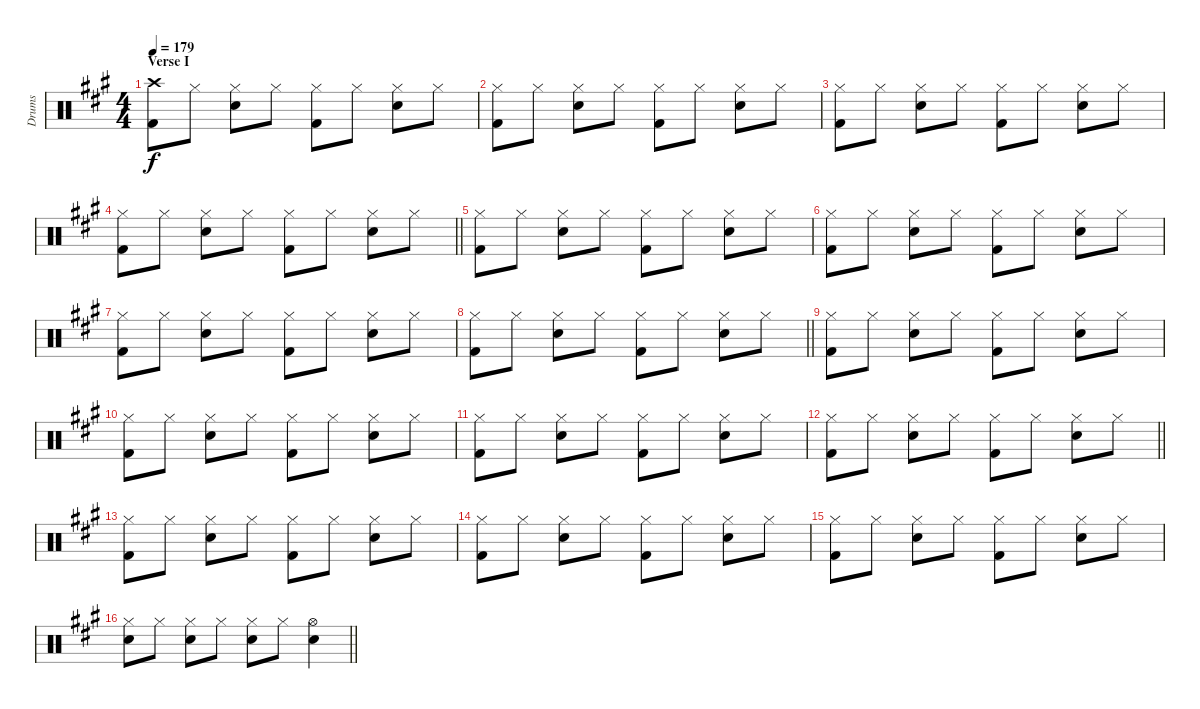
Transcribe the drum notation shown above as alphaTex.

\track ("Drums" "Drums") {instrument percussion}
\staff {score}
\articulation defaults
\ts (4 4)
\section ("" "Verse I")
\tempo 179
\clef neutral
\ks a
("Crash high (hit)" "Kick (hit) 2").8{dy f} "Hi-Hat (closed)".8 ("Hi-Hat (closed)" "Electric Snare (hit)").8 "Hi-Hat (closed)".8 ("Hi-Hat (closed)" "Kick (hit) 2").8 "Hi-Hat (closed)".8 ("Hi-Hat (closed)" "Electric Snare (hit)").8 "Hi-Hat (closed)".8 |
("Hi-Hat (closed)" "Kick (hit) 2").8 "Hi-Hat (closed)".8 ("Hi-Hat (closed)" "Electric Snare (hit)").8 "Hi-Hat (closed)".8 ("Hi-Hat (closed)" "Kick (hit) 2").8 "Hi-Hat (closed)".8 ("Hi-Hat (closed)" "Electric Snare (hit)").8 "Hi-Hat (closed)".8 |
("Hi-Hat (closed)" "Kick (hit) 2").8 "Hi-Hat (closed)".8 ("Hi-Hat (closed)" "Electric Snare (hit)").8 "Hi-Hat (closed)".8 ("Hi-Hat (closed)" "Kick (hit) 2").8 "Hi-Hat (closed)".8 ("Hi-Hat (closed)" "Electric Snare (hit)").8 "Hi-Hat (closed)".8 |
\barLineRight lightlight
("Hi-Hat (closed)" "Kick (hit) 2").8 "Hi-Hat (closed)".8 ("Hi-Hat (closed)" "Electric Snare (hit)").8 "Hi-Hat (closed)".8 ("Hi-Hat (closed)" "Kick (hit) 2").8 "Hi-Hat (closed)".8 ("Hi-Hat (closed)" "Electric Snare (hit)").8 "Hi-Hat (closed)".8 |
("Hi-Hat (closed)" "Kick (hit) 2").8 "Hi-Hat (closed)".8 ("Hi-Hat (closed)" "Electric Snare (hit)").8 "Hi-Hat (closed)".8 ("Hi-Hat (closed)" "Kick (hit) 2").8 "Hi-Hat (closed)".8 ("Hi-Hat (closed)" "Electric Snare (hit)").8 "Hi-Hat (closed)".8 |
("Hi-Hat (closed)" "Kick (hit) 2").8 "Hi-Hat (closed)".8 ("Hi-Hat (closed)" "Electric Snare (hit)").8 "Hi-Hat (closed)".8 ("Hi-Hat (closed)" "Kick (hit) 2").8 "Hi-Hat (closed)".8 ("Hi-Hat (closed)" "Electric Snare (hit)").8 "Hi-Hat (closed)".8 |
("Hi-Hat (closed)" "Kick (hit) 2").8 "Hi-Hat (closed)".8 ("Hi-Hat (closed)" "Electric Snare (hit)").8 "Hi-Hat (closed)".8 ("Hi-Hat (closed)" "Kick (hit) 2").8 "Hi-Hat (closed)".8 ("Hi-Hat (closed)" "Electric Snare (hit)").8 "Hi-Hat (closed)".8 |
\barLineRight lightlight
("Hi-Hat (closed)" "Kick (hit) 2").8 "Hi-Hat (closed)".8 ("Hi-Hat (closed)" "Electric Snare (hit)").8 "Hi-Hat (closed)".8 ("Hi-Hat (closed)" "Kick (hit) 2").8 "Hi-Hat (closed)".8 ("Hi-Hat (closed)" "Electric Snare (hit)").8 "Hi-Hat (closed)".8 |
("Hi-Hat (closed)" "Kick (hit) 2").8 "Hi-Hat (closed)".8 ("Hi-Hat (closed)" "Electric Snare (hit)").8 "Hi-Hat (closed)".8 ("Hi-Hat (closed)" "Kick (hit) 2").8 "Hi-Hat (closed)".8 ("Hi-Hat (closed)" "Electric Snare (hit)").8 "Hi-Hat (closed)".8 |
("Hi-Hat (closed)" "Kick (hit) 2").8 "Hi-Hat (closed)".8 ("Hi-Hat (closed)" "Electric Snare (hit)").8 "Hi-Hat (closed)".8 ("Hi-Hat (closed)" "Kick (hit) 2").8 "Hi-Hat (closed)".8 ("Hi-Hat (closed)" "Electric Snare (hit)").8 "Hi-Hat (closed)".8 |
("Hi-Hat (closed)" "Kick (hit) 2").8 "Hi-Hat (closed)".8 ("Hi-Hat (closed)" "Electric Snare (hit)").8 "Hi-Hat (closed)".8 ("Hi-Hat (closed)" "Kick (hit) 2").8 "Hi-Hat (closed)".8 ("Hi-Hat (closed)" "Electric Snare (hit)").8 "Hi-Hat (closed)".8 |
\barLineRight lightlight
("Hi-Hat (closed)" "Kick (hit) 2").8 "Hi-Hat (closed)".8 ("Hi-Hat (closed)" "Electric Snare (hit)").8 "Hi-Hat (closed)".8 ("Hi-Hat (closed)" "Kick (hit) 2").8 "Hi-Hat (closed)".8 ("Hi-Hat (closed)" "Electric Snare (hit)").8 "Hi-Hat (closed)".8 |
("Hi-Hat (closed)" "Kick (hit) 2").8 "Hi-Hat (closed)".8 ("Hi-Hat (closed)" "Electric Snare (hit)").8 "Hi-Hat (closed)".8 ("Hi-Hat (closed)" "Kick (hit) 2").8 "Hi-Hat (closed)".8 ("Hi-Hat (closed)" "Electric Snare (hit)").8 "Hi-Hat (closed)".8 |
("Hi-Hat (closed)" "Kick (hit) 2").8 "Hi-Hat (closed)".8 ("Hi-Hat (closed)" "Electric Snare (hit)").8 "Hi-Hat (closed)".8 ("Hi-Hat (closed)" "Kick (hit) 2").8 "Hi-Hat (closed)".8 ("Hi-Hat (closed)" "Electric Snare (hit)").8 "Hi-Hat (closed)".8 |
("Hi-Hat (closed)" "Kick (hit) 2").8 "Hi-Hat (closed)".8 ("Hi-Hat (closed)" "Electric Snare (hit)").8 "Hi-Hat (closed)".8 ("Hi-Hat (closed)" "Kick (hit) 2").8 "Hi-Hat (closed)".8 ("Hi-Hat (closed)" "Electric Snare (hit)").8 "Hi-Hat (closed)".8 |
\barLineRight lightlight
("Hi-Hat (closed)" "Electric Snare (hit)").8 "Hi-Hat (closed)".8 ("Hi-Hat (closed)" "Electric Snare (hit)").8 "Hi-Hat (closed)".8 ("Hi-Hat (closed)" "Electric Snare (hit)").8 "Hi-Hat (closed)".8 ("Hi-Hat (open)" "Electric Snare (hit)").4
